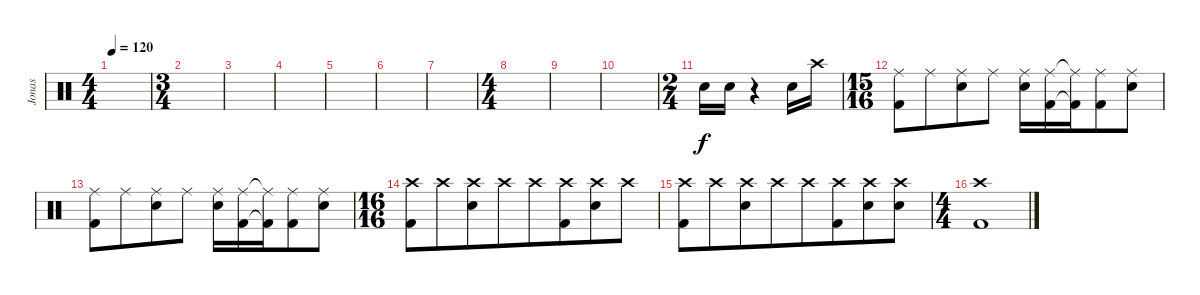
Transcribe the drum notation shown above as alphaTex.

\track ("Jonas" "Jonas") {instrument percussion}
\staff {score}
\articulation defaults
\ts (4 4)
\tempo 120
\clef neutral
\ks c
|
\ts (3 4)
|
|
|
|
|
|
\ts (4 4)
|
|
|
\ts (2 4)
"Snare (hit) 2".16 "Snare (hit) 2".16 r.4 "Snare (hit) 2".16 "Crash high (hit)".16 |
\ts (15 16)
("Ride (middle)" "Kick (hit) 2").8 "Ride (middle)".8{beam merge} ("Ride (middle)" "Snare (hit) 2").8{beam merge} "Ride (middle)".8 ("Ride (middle)" "Snare (hit) 2").16{beam merge} ("Ride (middle)" "Kick (hit) 2").16 ("Ride (middle)"{t} "Kick (hit) 2"{t}).16 ("Ride (middle)" "Kick (hit) 2").8{beam merge} ("Ride (middle)" "Snare (hit) 2").8 |
("Ride (middle)" "Kick (hit) 2").8 "Ride (middle)".8{beam merge} ("Ride (middle)" "Snare (hit) 2").8{beam merge} "Ride (middle)".8 ("Ride (middle)" "Snare (hit) 2").16{beam merge} ("Ride (middle)" "Kick (hit) 2").16 ("Ride (middle)"{t} "Kick (hit) 2"{t}).16 ("Ride (middle)" "Kick (hit) 2").8{beam merge} ("Ride (middle)" "Snare (hit) 2").8 |
\ts (16 16)
("Crash high (hit)" "Kick (hit) 2").8{beam merge} "Crash high (hit)".8{beam merge} ("Crash high (hit)" "Snare (hit) 2").8{beam merge} "Crash high (hit)".8{beam merge} "Crash high (hit)".8{beam merge} ("Crash high (hit)" "Kick (hit) 2").8{beam merge} ("Crash high (hit)" "Snare (hit) 2").8{beam merge} "Crash high (hit)".8 |
("Crash high (hit)" "Kick (hit) 2").8{beam merge} "Crash high (hit)".8{beam merge} ("Crash high (hit)" "Snare (hit) 2").8{beam merge} "Crash high (hit)".8{beam merge} "Crash high (hit)".8{beam merge} ("Crash high (hit)" "Kick (hit) 2").8{beam merge} ("Crash high (hit)" "Snare (hit) 2").8{beam merge} ("Crash high (hit)" "Snare (hit) 2").8 |
\ts (4 4)
("Crash high (hit)" "Kick (hit) 2").1
